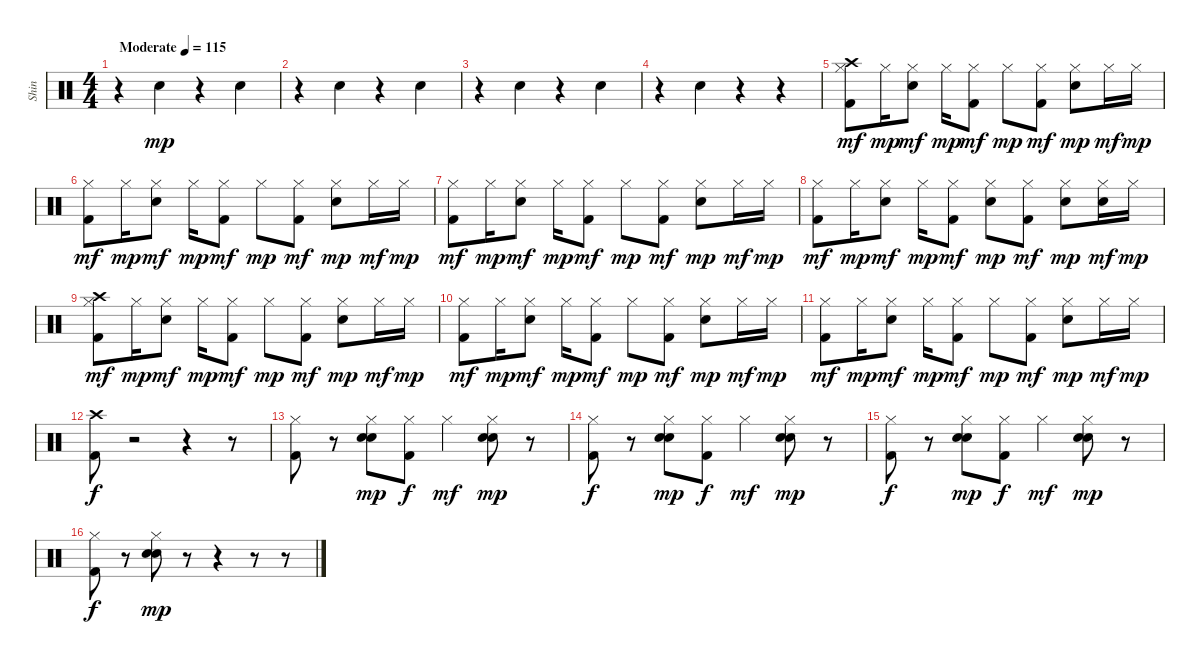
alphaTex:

\track ("Shin" "Shin") {instrument percussion}
\staff {score}
\articulation defaults
\ts (4 4)
\tempo (115 "Moderate")
\clef neutral
\ks c
r.4{dy mp} "Snare (hit) 2".4 r.4 "Snare (hit) 2".4 |
r.4 "Snare (hit) 2".4 r.4 "Snare (hit) 2".4 |
r.4 "Snare (hit) 2".4 r.4 "Snare (hit) 2".4 |
r.4 "Snare (hit) 2".4 r.4 r.4 |
("Hi-Hat (closed)" "Crash high (hit)" "Kick (hit) 2").8{dy mf} "Hi-Hat (closed)".16{dy mp} ("Hi-Hat (closed)" "Snare (hit) 2").8{dy mf} "Hi-Hat (closed)".16{dy mp} ("Hi-Hat (closed)" "Kick (hit) 2").8{dy mf} "Hi-Hat (closed)".8{dy mp} ("Hi-Hat (closed)" "Kick (hit) 2").8{dy mf} ("Hi-Hat (closed)" "Snare (hit) 2").8{dy mp} "Hi-Hat (closed)".16{dy mf} "Hi-Hat (closed)".16{dy mp} |
("Hi-Hat (closed)" "Kick (hit) 2").8{dy mf} "Hi-Hat (closed)".16{dy mp} ("Hi-Hat (closed)" "Snare (hit) 2").8{dy mf} "Hi-Hat (closed)".16{dy mp} ("Hi-Hat (closed)" "Kick (hit) 2").8{dy mf} "Hi-Hat (closed)".8{dy mp} ("Hi-Hat (closed)" "Kick (hit) 2").8{dy mf} ("Hi-Hat (closed)" "Snare (hit) 2").8{dy mp} "Hi-Hat (closed)".16{dy mf} "Hi-Hat (closed)".16{dy mp} |
("Hi-Hat (closed)" "Kick (hit) 2").8{dy mf} "Hi-Hat (closed)".16{dy mp} ("Hi-Hat (closed)" "Snare (hit) 2").8{dy mf} "Hi-Hat (closed)".16{dy mp} ("Hi-Hat (closed)" "Kick (hit) 2").8{dy mf} "Hi-Hat (closed)".8{dy mp} ("Hi-Hat (closed)" "Kick (hit) 2").8{dy mf} ("Hi-Hat (closed)" "Snare (hit) 2").8{dy mp} "Hi-Hat (closed)".16{dy mf} "Hi-Hat (closed)".16{dy mp} |
("Hi-Hat (closed)" "Kick (hit) 2").8{dy mf} "Hi-Hat (closed)".16{dy mp} ("Hi-Hat (closed)" "Snare (hit) 2").8{dy mf} "Hi-Hat (closed)".16{dy mp} ("Hi-Hat (closed)" "Kick (hit) 2").8{dy mf} ("Hi-Hat (closed)" "Snare (hit) 2").8{dy mp} ("Hi-Hat (closed)" "Kick (hit) 2").8{dy mf} ("Hi-Hat (closed)" "Snare (hit) 2").8{dy mp} ("Hi-Hat (closed)" "Snare (hit) 2").16{dy mf} "Hi-Hat (closed)".16{dy mp} |
("Hi-Hat (closed)" "Crash high (hit)" "Kick (hit) 2").8{dy mf} "Hi-Hat (closed)".16{dy mp} ("Hi-Hat (closed)" "Snare (hit) 2").8{dy mf} "Hi-Hat (closed)".16{dy mp} ("Hi-Hat (closed)" "Kick (hit) 2").8{dy mf} "Hi-Hat (closed)".8{dy mp} ("Hi-Hat (closed)" "Kick (hit) 2").8{dy mf} ("Hi-Hat (closed)" "Snare (hit) 2").8{dy mp} "Hi-Hat (closed)".16{dy mf} "Hi-Hat (closed)".16{dy mp} |
("Hi-Hat (closed)" "Kick (hit) 2").8{dy mf} "Hi-Hat (closed)".16{dy mp} ("Hi-Hat (closed)" "Snare (hit) 2").8{dy mf} "Hi-Hat (closed)".16{dy mp} ("Hi-Hat (closed)" "Kick (hit) 2").8{dy mf} "Hi-Hat (closed)".8{dy mp} ("Hi-Hat (closed)" "Kick (hit) 2").8{dy mf} ("Hi-Hat (closed)" "Snare (hit) 2").8{dy mp} "Hi-Hat (closed)".16{dy mf} "Hi-Hat (closed)".16{dy mp} |
("Hi-Hat (closed)" "Kick (hit) 2").8{dy mf} "Hi-Hat (closed)".16{dy mp} ("Hi-Hat (closed)" "Snare (hit) 2").8{dy mf} "Hi-Hat (closed)".16{dy mp} ("Hi-Hat (closed)" "Kick (hit) 2").8{dy mf} "Hi-Hat (closed)".8{dy mp} ("Hi-Hat (closed)" "Kick (hit) 2").8{dy mf} ("Hi-Hat (closed)" "Snare (hit) 2").8{dy mp} "Hi-Hat (closed)".16{dy mf} "Hi-Hat (closed)".16{dy mp} |
("Crash high (hit)" "Kick (hit) 2").8{dy f} r.2 r.4 r.8 |
("Kick (hit) 2" "Hi-Hat (closed)").8 r.8 ("Hi-Hat (closed)" "Snare (hit) 2" "Hand Clap (hit)").8{dy mp} ("Kick (hit) 2" "Hi-Hat (closed)").8{dy f} "Hi-Hat (closed)".4{dy mf} ("Hi-Hat (closed)" "Snare (hit) 2" "Hand Clap (hit)").8{dy mp} r.8 |
("Kick (hit) 2" "Hi-Hat (closed)").8{dy f} r.8 ("Hi-Hat (closed)" "Snare (hit) 2" "Hand Clap (hit)").8{dy mp} ("Kick (hit) 2" "Hi-Hat (closed)").8{dy f} "Hi-Hat (closed)".4{dy mf} ("Hi-Hat (closed)" "Snare (hit) 2" "Hand Clap (hit)").8{dy mp} r.8 |
("Kick (hit) 2" "Hi-Hat (closed)").8{dy f} r.8 ("Hi-Hat (closed)" "Snare (hit) 2" "Hand Clap (hit)").8{dy mp} ("Kick (hit) 2" "Hi-Hat (closed)").8{dy f} "Hi-Hat (closed)".4{dy mf} ("Hi-Hat (closed)" "Snare (hit) 2" "Hand Clap (hit)").8{dy mp} r.8 |
("Kick (hit) 2" "Hi-Hat (closed)").8{dy f} r.8 ("Hi-Hat (closed)" "Snare (hit) 2" "Hand Clap (hit)").8{dy mp} r.8 r.4 r.8 r.8
